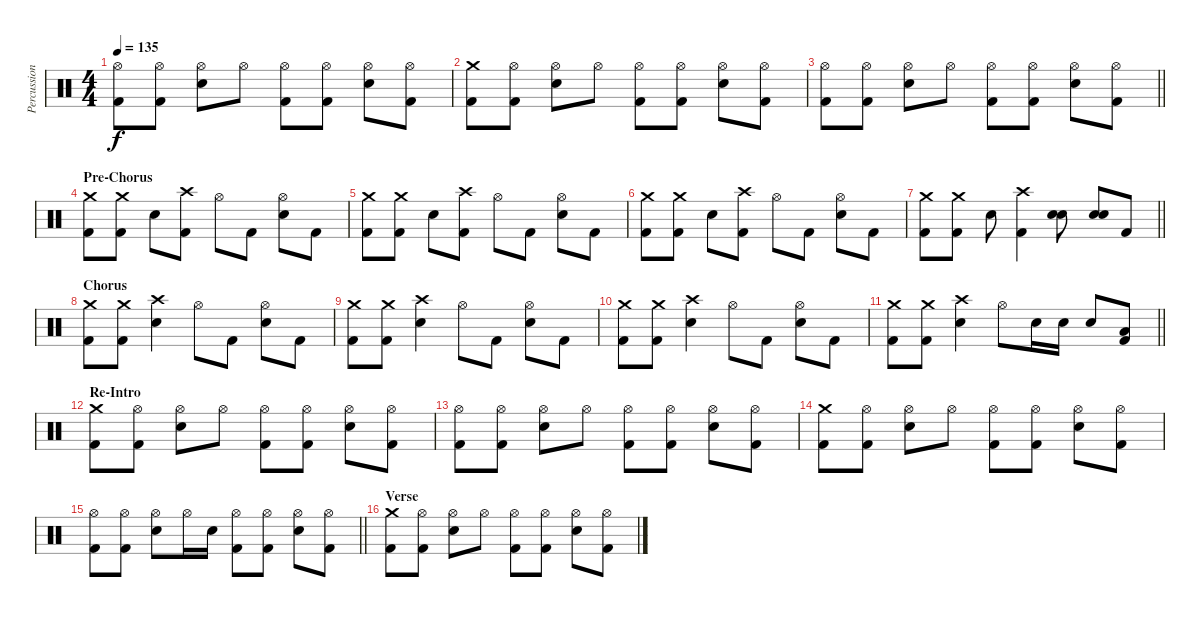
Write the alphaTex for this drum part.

\track ("Percussion" "Percussion") {instrument percussion}
\staff {score}
\articulation defaults
\ts (4 4)
\tempo 135
\clef neutral
\ks c
("Hi-Hat (open)" "Kick (hit) 2").8{dy f} ("Hi-Hat (open)" "Kick (hit) 2").8 ("Hi-Hat (open)" "Electric Snare (hit)").8 "Hi-Hat (open)".8 ("Hi-Hat (open)" "Kick (hit) 2").8 ("Hi-Hat (open)" "Kick (hit) 2").8 ("Hi-Hat (open)" "Electric Snare (hit)").8 ("Hi-Hat (open)" "Kick (hit) 2").8 |
("Crash medium (hit)" "Kick (hit) 2").8 ("Hi-Hat (open)" "Kick (hit) 2").8 ("Hi-Hat (open)" "Electric Snare (hit)").8 "Hi-Hat (open)".8 ("Hi-Hat (open)" "Kick (hit) 2").8 ("Hi-Hat (open)" "Kick (hit) 2").8 ("Hi-Hat (open)" "Electric Snare (hit)").8 ("Hi-Hat (open)" "Kick (hit) 2").8 |
\barLineRight lightlight
("Hi-Hat (open)" "Kick (hit) 2").8 ("Hi-Hat (open)" "Kick (hit) 2").8 ("Hi-Hat (open)" "Electric Snare (hit)").8 "Hi-Hat (open)".8 ("Hi-Hat (open)" "Kick (hit) 2").8 ("Hi-Hat (open)" "Kick (hit) 2").8 ("Hi-Hat (open)" "Electric Snare (hit)").8 ("Hi-Hat (open)" "Kick (hit) 2").8 |
\section ("" "Pre-Chorus")
("Crash medium (hit)" "Kick (hit) 2").8 ("Crash medium (hit)" "Kick (hit) 2").8 "Electric Snare (hit)".8 ("Crash high (hit)" "Kick (hit) 2").8 "Hi-Hat (open)".8 "Kick (hit) 2".8 ("Hi-Hat (open)" "Electric Snare (hit)").8 "Kick (hit) 2".8 |
("Crash medium (hit)" "Kick (hit) 2").8 ("Crash medium (hit)" "Kick (hit) 2").8 "Electric Snare (hit)".8 ("Crash high (hit)" "Kick (hit) 2").8 "Hi-Hat (open)".8 "Kick (hit) 2".8 ("Hi-Hat (open)" "Electric Snare (hit)").8 "Kick (hit) 2".8 |
("Crash medium (hit)" "Kick (hit) 2").8 ("Crash medium (hit)" "Kick (hit) 2").8 "Electric Snare (hit)".8 ("Crash high (hit)" "Kick (hit) 2").8 "Hi-Hat (open)".8 "Kick (hit) 2".8 ("Hi-Hat (open)" "Electric Snare (hit)").8 "Kick (hit) 2".8 |
\barLineRight lightlight
("Crash medium (hit)" "Kick (hit) 2").8 ("Crash medium (hit)" "Kick (hit) 2").8 "Electric Snare (hit)".8 ("Crash high (hit)" "Kick (hit) 2").4 ("Electric Snare (hit)" "Electric Snare (hit)").8 ("Electric Snare (hit)" "Electric Snare (hit)").8 "Kick (hit) 2".8 |
\section ("" "Chorus")
("Crash medium (hit)" "Kick (hit) 2").8 ("Crash medium (hit)" "Kick (hit) 2").8 ("Crash high (hit)" "Electric Snare (hit)").4 "Hi-Hat (open)".8 "Kick (hit) 2".8 ("Hi-Hat (open)" "Electric Snare (hit)").8 "Kick (hit) 2".8 |
("Crash medium (hit)" "Kick (hit) 2").8 ("Crash medium (hit)" "Kick (hit) 2").8 ("Crash high (hit)" "Electric Snare (hit)").4 "Hi-Hat (open)".8 "Kick (hit) 2".8 ("Hi-Hat (open)" "Electric Snare (hit)").8 "Kick (hit) 2".8 |
("Crash medium (hit)" "Kick (hit) 2").8 ("Crash medium (hit)" "Kick (hit) 2").8 ("Crash high (hit)" "Electric Snare (hit)").4 "Hi-Hat (open)".8 "Kick (hit) 2".8 ("Hi-Hat (open)" "Electric Snare (hit)").8 "Kick (hit) 2".8 |
\barLineRight lightlight
("Crash medium (hit)" "Kick (hit) 2").8 ("Crash medium (hit)" "Kick (hit) 2").8 ("Crash high (hit)" "Electric Snare (hit)").4 "Hi-Hat (open)".8 "Electric Snare (hit)".16 "Electric Snare (hit)".16 "Electric Snare (hit)".8 ("Low Floor Tom (hit)" "Kick (hit) 2").8 |
\section ("" "Re-Intro")
("Crash medium (hit)" "Kick (hit) 2").8 ("Hi-Hat (open)" "Kick (hit) 2").8 ("Hi-Hat (open)" "Electric Snare (hit)").8 "Hi-Hat (open)".8 ("Hi-Hat (open)" "Kick (hit) 2").8 ("Hi-Hat (open)" "Kick (hit) 2").8 ("Hi-Hat (open)" "Electric Snare (hit)").8 ("Hi-Hat (open)" "Kick (hit) 2").8 |
("Hi-Hat (open)" "Kick (hit) 2").8 ("Hi-Hat (open)" "Kick (hit) 2").8 ("Hi-Hat (open)" "Electric Snare (hit)").8 "Hi-Hat (open)".8 ("Hi-Hat (open)" "Kick (hit) 2").8 ("Hi-Hat (open)" "Kick (hit) 2").8 ("Hi-Hat (open)" "Electric Snare (hit)").8 ("Hi-Hat (open)" "Kick (hit) 2").8 |
("Crash medium (hit)" "Kick (hit) 2").8 ("Hi-Hat (open)" "Kick (hit) 2").8 ("Hi-Hat (open)" "Electric Snare (hit)").8 "Hi-Hat (open)".8 ("Hi-Hat (open)" "Kick (hit) 2").8 ("Hi-Hat (open)" "Kick (hit) 2").8 ("Hi-Hat (open)" "Electric Snare (hit)").8 ("Hi-Hat (open)" "Kick (hit) 2").8 |
\barLineRight lightlight
("Hi-Hat (open)" "Kick (hit) 2").8 ("Hi-Hat (open)" "Kick (hit) 2").8 ("Hi-Hat (open)" "Electric Snare (hit)").8 "Hi-Hat (open)".16 "Electric Snare (hit)".16 ("Hi-Hat (open)" "Kick (hit) 2").8 ("Hi-Hat (open)" "Kick (hit) 2").8 ("Hi-Hat (open)" "Electric Snare (hit)").8 ("Hi-Hat (open)" "Kick (hit) 2").8 |
\section ("" "Verse")
("Crash medium (hit)" "Kick (hit) 2").8 ("Hi-Hat (open)" "Kick (hit) 2").8 ("Hi-Hat (open)" "Electric Snare (hit)").8 "Hi-Hat (open)".8 ("Hi-Hat (open)" "Kick (hit) 2").8 ("Hi-Hat (open)" "Kick (hit) 2").8 ("Hi-Hat (open)" "Electric Snare (hit)").8 ("Hi-Hat (open)" "Kick (hit) 2").8
